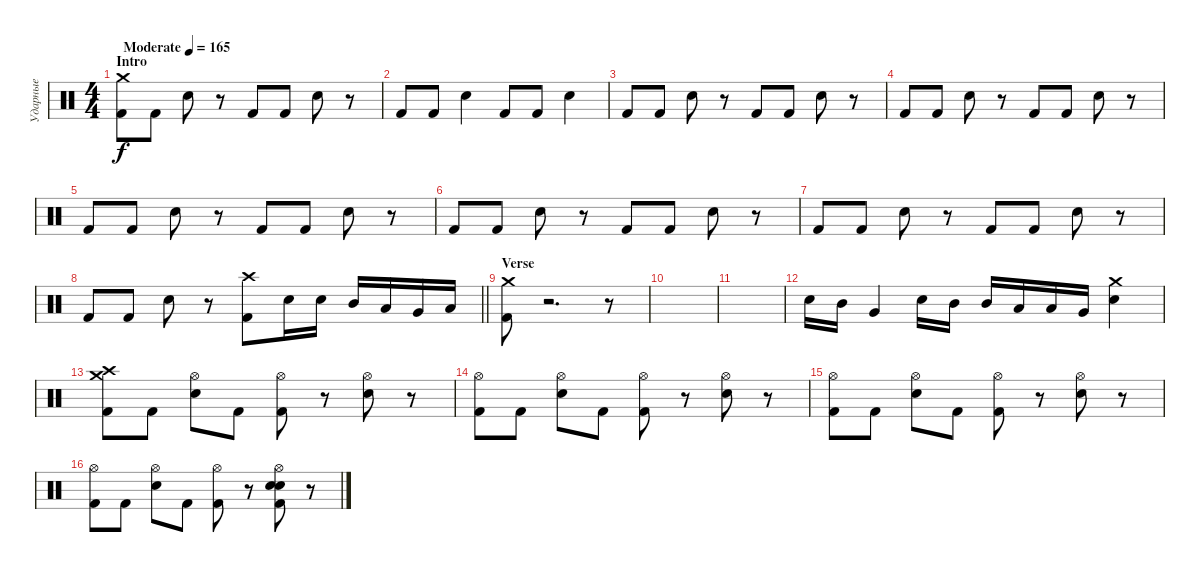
\track ("Ударные" "Ударные") {instrument percussion}
\staff {score}
\articulation defaults
\ts (4 4)
\section ("" "Intro")
\tempo (165 "Moderate")
\clef neutral
\ks c
("Crash medium (hit)" "Kick (hit) 2").8{dy f} "Kick (hit) 2".8 "Electric Snare (hit)".8 r.8 "Kick (hit) 2".8 "Kick (hit) 2".8 "Electric Snare (hit)".8 r.8 |
"Kick (hit) 2".8 "Kick (hit) 2".8 "Electric Snare (hit)".4 "Kick (hit) 2".8 "Kick (hit) 2".8 "Electric Snare (hit)".4 |
"Kick (hit) 2".8 "Kick (hit) 2".8 "Electric Snare (hit)".8 r.8 "Kick (hit) 2".8 "Kick (hit) 2".8 "Electric Snare (hit)".8 r.8 |
"Kick (hit) 2".8 "Kick (hit) 2".8 "Electric Snare (hit)".8 r.8 "Kick (hit) 2".8 "Kick (hit) 2".8 "Electric Snare (hit)".8 r.8 |
"Kick (hit) 2".8 "Kick (hit) 2".8 "Electric Snare (hit)".8 r.8 "Kick (hit) 2".8 "Kick (hit) 2".8 "Electric Snare (hit)".8 r.8 |
"Kick (hit) 2".8 "Kick (hit) 2".8 "Electric Snare (hit)".8 r.8 "Kick (hit) 2".8 "Kick (hit) 2".8 "Electric Snare (hit)".8 r.8 |
"Kick (hit) 2".8 "Kick (hit) 2".8 "Electric Snare (hit)".8 r.8 "Kick (hit) 2".8 "Kick (hit) 2".8 "Electric Snare (hit)".8 r.8 |
\barLineRight lightlight "Kick (hit) 2".8 "Kick (hit) 2".8 "Electric Snare (hit)".8
r.8 ("Crash high (hit)" "Kick (hit) 2").8 "Electric Snare (hit)".16 "Electric Snare (hit)".16 "Mid Tom (hit)".16 "Low Tom (hit)".16 "Very Low Tom (hit)".16 "Low Floor Tom (hit)".16 |
\section ("" "Verse")
("Crash medium (hit)" "Kick (hit) 2").8 r.2{d} r.8 |
|
|
"Electric Snare (hit)".16 "Mid Tom (hit)".16 "Very Low Tom (hit)".4 "Electric Snare (hit)".16 "Mid Tom (hit)".16 "Mid Tom (hit)".16 "Low Tom (hit)".16 "Low Tom (hit)".16 "Very Low Tom (hit)".16 ("Crash medium (hit)" "Electric Snare (hit)").4 |
("Crash medium (hit)" "Crash high (hit)" "Kick (hit) 2").8 "Kick (hit) 2".8 ("Hi-Hat (open)" "Electric Snare (hit)").8 "Kick (hit) 2".8 ("Hi-Hat (open)" "Kick (hit) 2").8 r.8 ("Hi-Hat (open)" "Electric Snare (hit)").8 r.8 |
("Hi-Hat (open)" "Kick (hit) 2").8 "Kick (hit) 2".8 ("Hi-Hat (open)" "Electric Snare (hit)").8 "Kick (hit) 2".8 ("Hi-Hat (open)" "Kick (hit) 2").8 r.8 ("Hi-Hat (open)" "Electric Snare (hit)").8 r.8 |
("Hi-Hat (open)" "Kick (hit) 2").8 "Kick (hit) 2".8 ("Hi-Hat (open)" "Electric Snare (hit)").8 "Kick (hit) 2".8 ("Hi-Hat (open)" "Kick (hit) 2").8 r.8 ("Hi-Hat (open)" "Electric Snare (hit)").8 r.8 |
("Hi-Hat (open)" "Kick (hit) 2").8 "Kick (hit) 2".8 ("Hi-Hat (open)" "Electric Snare (hit)").8 "Kick (hit) 2".8 ("Hi-Hat (open)" "Kick (hit) 2").8 r.8 ("Hi-Hat (open)" "Electric Snare (hit)" "Electric Snare (hit)" "Kick (hit) 2").8 r.8
